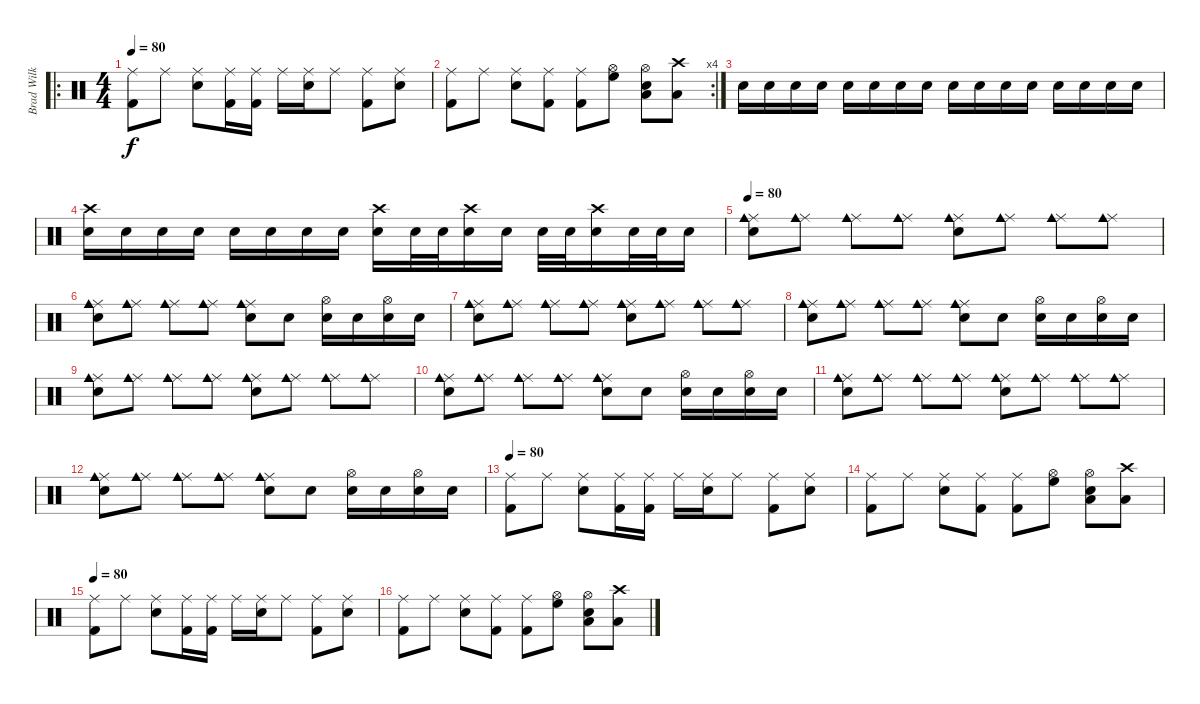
\track ("Brad Wilk" "Brad Wilk") {instrument percussion}
\staff {score}
\articulation defaults
\ro
\ts (4 4)
\tempo 80
\clef neutral
\ks c
("Ride (middle)" "Kick (hit) 2").8{dy f} "Ride (middle)".8 ("Ride (middle)" "Snare (hit) 2").8 ("Ride (middle)" "Kick (hit) 2").16 ("Ride (middle)" "Kick (hit) 2").16 "Ride (middle)".16 ("Ride (middle)" "Snare (hit) 2").16 "Ride (middle)".8 ("Ride (middle)" "Kick (hit) 2").8 ("Ride (middle)" "Snare (hit) 2").8 |
\rc 4
("Ride (middle)" "Kick (hit) 2").8 "Ride (middle)".8 ("Ride (middle)" "Snare (hit) 2").8 ("Ride (middle)" "Kick (hit) 2").8 ("Ride (middle)" "Kick (hit) 2").8 ("Hi-Hat (open)" "High Floor Tom (hit)").8 ("Hi-Hat (open)" "Snare (hit) 2" "Low Tom (hit)").8 ("Crash high (hit)" "Low Floor Tom (hit)").8 |
"Snare (hit) 2".16{volume 0} "Snare (hit) 2".16{volume 16} "Snare (hit) 2".16 "Snare (hit) 2".16 "Snare (hit) 2".16 "Snare (hit) 2".16 "Snare (hit) 2".16 "Snare (hit) 2".16 "Snare (hit) 2".16 "Snare (hit) 2".16 "Snare (hit) 2".16 "Snare (hit) 2".16 "Snare (hit) 2".16 "Snare (hit) 2".16 "Snare (hit) 2".16 "Snare (hit) 2".16 |
("Crash high (hit)" "Snare (hit) 2").16 "Snare (hit) 2".16 "Snare (hit) 2".16 "Snare (hit) 2".16 "Snare (hit) 2".16 "Snare (hit) 2".16 "Snare (hit) 2".16 "Snare (hit) 2".16 ("Crash high (hit)" "Snare (hit) 2").16 "Snare (hit) 2".32 "Snare (hit) 2".32 ("Crash high (hit)" "Snare (hit) 2").16 "Snare (hit) 2".16 "Snare (hit) 2".32 "Snare (hit) 2".32 ("Crash high (hit)" "Snare (hit) 2").16 "Snare (hit) 2".32 "Snare (hit) 2".32 "Snare (hit) 2".16 |
\tempo 80
("Ride (middle)" "Cowbell medium (hit)" "Snare (hit) 2").8 ("Ride (middle)" "Cowbell medium (hit)").8 ("Ride (middle)" "Cowbell medium (hit)").8 ("Ride (middle)" "Cowbell medium (hit)").8 ("Ride (middle)" "Cowbell medium (hit)" "Snare (hit) 2").8 ("Ride (middle)" "Cowbell medium (hit)").8 ("Ride (middle)" "Cowbell medium (hit)").8 ("Ride (middle)" "Cowbell medium (hit)").8 |
("Ride (middle)" "Cowbell medium (hit)" "Snare (hit) 2").8 ("Ride (middle)" "Cowbell medium (hit)").8 ("Ride (middle)" "Cowbell medium (hit)").8 ("Ride (middle)" "Cowbell medium (hit)").8 ("Ride (middle)" "Cowbell medium (hit)" "Snare (hit) 2").8 "Snare (hit) 2".8 ("Hi-Hat (open)" "Snare (hit) 2").16 "Snare (hit) 2".16 ("Hi-Hat (open)" "Snare (hit) 2").16 "Snare (hit) 2".16 |
("Ride (middle)" "Cowbell medium (hit)" "Snare (hit) 2").8 ("Ride (middle)" "Cowbell medium (hit)").8 ("Ride (middle)" "Cowbell medium (hit)").8 ("Ride (middle)" "Cowbell medium (hit)").8 ("Ride (middle)" "Cowbell medium (hit)" "Snare (hit) 2").8 ("Ride (middle)" "Cowbell medium (hit)").8 ("Ride (middle)" "Cowbell medium (hit)").8 ("Ride (middle)" "Cowbell medium (hit)").8 |
("Ride (middle)" "Cowbell medium (hit)" "Snare (hit) 2").8 ("Ride (middle)" "Cowbell medium (hit)").8 ("Ride (middle)" "Cowbell medium (hit)").8 ("Ride (middle)" "Cowbell medium (hit)").8 ("Ride (middle)" "Cowbell medium (hit)" "Snare (hit) 2").8 "Snare (hit) 2".8 ("Hi-Hat (open)" "Snare (hit) 2").16 "Snare (hit) 2".16 ("Hi-Hat (open)" "Snare (hit) 2").16 "Snare (hit) 2".16 |
("Ride (middle)" "Cowbell medium (hit)" "Snare (hit) 2").8 ("Ride (middle)" "Cowbell medium (hit)").8 ("Ride (middle)" "Cowbell medium (hit)").8 ("Ride (middle)" "Cowbell medium (hit)").8 ("Ride (middle)" "Cowbell medium (hit)" "Snare (hit) 2").8 ("Ride (middle)" "Cowbell medium (hit)").8 ("Ride (middle)" "Cowbell medium (hit)").8 ("Ride (middle)" "Cowbell medium (hit)").8 |
("Ride (middle)" "Cowbell medium (hit)" "Snare (hit) 2").8 ("Ride (middle)" "Cowbell medium (hit)").8 ("Ride (middle)" "Cowbell medium (hit)").8 ("Ride (middle)" "Cowbell medium (hit)").8 ("Ride (middle)" "Cowbell medium (hit)" "Snare (hit) 2").8 "Snare (hit) 2".8 ("Hi-Hat (open)" "Snare (hit) 2").16 "Snare (hit) 2".16 ("Hi-Hat (open)" "Snare (hit) 2").16 "Snare (hit) 2".16 |
("Ride (middle)" "Cowbell medium (hit)" "Snare (hit) 2").8 ("Ride (middle)" "Cowbell medium (hit)").8 ("Ride (middle)" "Cowbell medium (hit)").8 ("Ride (middle)" "Cowbell medium (hit)").8 ("Ride (middle)" "Cowbell medium (hit)" "Snare (hit) 2").8 ("Ride (middle)" "Cowbell medium (hit)").8 ("Ride (middle)" "Cowbell medium (hit)").8 ("Ride (middle)" "Cowbell medium (hit)").8 |
("Ride (middle)" "Cowbell medium (hit)" "Snare (hit) 2").8 ("Ride (middle)" "Cowbell medium (hit)").8 ("Ride (middle)" "Cowbell medium (hit)").8 ("Ride (middle)" "Cowbell medium (hit)").8 ("Ride (middle)" "Cowbell medium (hit)" "Snare (hit) 2").8 "Snare (hit) 2".8 ("Hi-Hat (open)" "Snare (hit) 2").16 "Snare (hit) 2".16 ("Hi-Hat (open)" "Snare (hit) 2").16 "Snare (hit) 2".16 |
\tempo 80
("Ride (middle)" "Kick (hit) 2").8 "Ride (middle)".8 ("Ride (middle)" "Snare (hit) 2").8 ("Ride (middle)" "Kick (hit) 2").16 ("Ride (middle)" "Kick (hit) 2").16 "Ride (middle)".16 ("Ride (middle)" "Snare (hit) 2").16 "Ride (middle)".8 ("Ride (middle)" "Kick (hit) 2").8 ("Ride (middle)" "Snare (hit) 2").8 |
("Ride (middle)" "Kick (hit) 2").8 "Ride (middle)".8 ("Ride (middle)" "Snare (hit) 2").8 ("Ride (middle)" "Kick (hit) 2").8 ("Ride (middle)" "Kick (hit) 2").8 ("Hi-Hat (open)" "High Floor Tom (hit)").8 ("Hi-Hat (open)" "Snare (hit) 2" "Low Tom (hit)").8 ("Crash high (hit)" "Low Floor Tom (hit)").8 |
\tempo 80
("Ride (middle)" "Kick (hit) 2").8 "Ride (middle)".8 ("Ride (middle)" "Snare (hit) 2").8 ("Ride (middle)" "Kick (hit) 2").16 ("Ride (middle)" "Kick (hit) 2").16 "Ride (middle)".16 ("Ride (middle)" "Snare (hit) 2").16 "Ride (middle)".8 ("Ride (middle)" "Kick (hit) 2").8 ("Ride (middle)" "Snare (hit) 2").8 |
("Ride (middle)" "Kick (hit) 2").8 "Ride (middle)".8 ("Ride (middle)" "Snare (hit) 2").8 ("Ride (middle)" "Kick (hit) 2").8 ("Ride (middle)" "Kick (hit) 2").8 ("Hi-Hat (open)" "High Floor Tom (hit)").8 ("Hi-Hat (open)" "Snare (hit) 2" "Low Tom (hit)").8 ("Crash high (hit)" "Low Floor Tom (hit)").8
